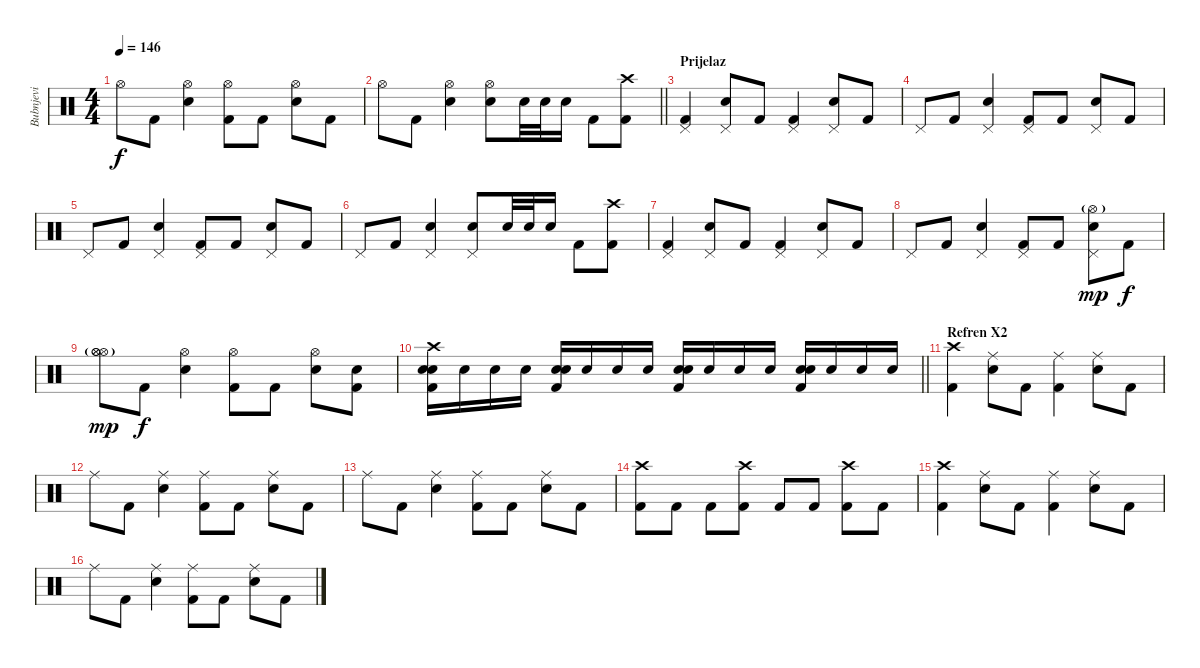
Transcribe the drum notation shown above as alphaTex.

\track ("Bubnjevi" "Bubnjevi") {instrument percussion}
\staff {score}
\articulation defaults
\ts (4 4)
\tempo 146
\clef neutral
\ks c "Hi-Hat (open)".8{dy f} "Kick (hit) 2".8
("Hi-Hat (open)" "Electric Snare (hit)").4 ("Hi-Hat (open)" "Kick (hit) 2").8 "Kick (hit) 2".8 ("Hi-Hat (open)" "Electric Snare (hit)").8 "Kick (hit) 2".8 |
\barLineRight lightlight "Hi-Hat (open)".8 "Kick (hit) 2".8
("Hi-Hat (open)" "Electric Snare (hit)").4 ("Hi-Hat (open)" "Snare (hit) 2").8 "Snare (hit) 2".32 "Snare (hit) 2".32 "Snare (hit) 2".16 "Kick (hit) 2".8 ("Crash high (hit)" "Kick (hit) 2").8 |
\section ("" "Prijelaz")
("Pedal Hi-Hat (hit)" "Kick (hit) 2").4 ("Pedal Hi-Hat (hit)" "Electric Snare (hit)").8 "Kick (hit) 2".8 ("Pedal Hi-Hat (hit)" "Kick (hit) 2").4 ("Pedal Hi-Hat (hit)" "Electric Snare (hit)").8 "Kick (hit) 2".8 |
"Pedal Hi-Hat (hit)".8 "Kick (hit) 2".8 ("Pedal Hi-Hat (hit)" "Electric Snare (hit)").4 ("Pedal Hi-Hat (hit)" "Kick (hit) 2").8 "Kick (hit) 2".8 ("Pedal Hi-Hat (hit)" "Electric Snare (hit)").8 "Kick (hit) 2".8 |
"Pedal Hi-Hat (hit)".8 "Kick (hit) 2".8 ("Pedal Hi-Hat (hit)" "Electric Snare (hit)").4 ("Pedal Hi-Hat (hit)" "Kick (hit) 2").8 "Kick (hit) 2".8 ("Pedal Hi-Hat (hit)" "Electric Snare (hit)").8 "Kick (hit) 2".8 |
"Pedal Hi-Hat (hit)".8 "Kick (hit) 2".8 ("Pedal Hi-Hat (hit)" "Electric Snare (hit)").4 ("Pedal Hi-Hat (hit)" "Snare (hit) 2").8 "Snare (hit) 2".32 "Snare (hit) 2".32 "Snare (hit) 2".16 "Kick (hit) 2".8 ("Crash high (hit)" "Kick (hit) 2").8 |
("Pedal Hi-Hat (hit)" "Kick (hit) 2").4 ("Pedal Hi-Hat (hit)" "Electric Snare (hit)").8 "Kick (hit) 2".8 ("Pedal Hi-Hat (hit)" "Kick (hit) 2").4 ("Pedal Hi-Hat (hit)" "Electric Snare (hit)").8 "Kick (hit) 2".8 |
"Pedal Hi-Hat (hit)".8 "Kick (hit) 2".8 ("Pedal Hi-Hat (hit)" "Electric Snare (hit)").4 ("Pedal Hi-Hat (hit)" "Kick (hit) 2").8 "Kick (hit) 2".8 ("Hi-Hat (open)"{g} "Pedal Hi-Hat (hit)" "Electric Snare (hit)").8{dy mp} "Kick (hit) 2".8{dy f} |
("Hi-Hat (open)"{g} "Hi-Hat (open)"{g} "Hi-Hat (open)"{g}).8{dy mp} "Kick (hit) 2".8{dy f} ("Hi-Hat (open)" "Electric Snare (hit)").4 ("Hi-Hat (open)" "Kick (hit) 2").8 "Kick (hit) 2".8 ("Hi-Hat (open)" "Electric Snare (hit)").8 ("Electric Snare (hit)" "Kick (hit) 2").8 |
\barLineRight lightlight
("Crash high (hit)" "Snare (hit) 2" "Snare (hit) 2" "Kick (hit) 2").16 "Snare (hit) 2".16 "Snare (hit) 2".16 "Snare (hit) 2".16 ("Snare (hit) 2" "Snare (hit) 2" "Kick (hit) 2").16 "Snare (hit) 2".16 "Snare (hit) 2".16 "Snare (hit) 2".16 ("Snare (hit) 2" "Snare (hit) 2" "Kick (hit) 2").16 "Snare (hit) 2".16 "Snare (hit) 2".16 "Snare (hit) 2".16 ("Snare (hit) 2" "Snare (hit) 2" "Kick (hit) 2").16 "Snare (hit) 2".16 "Snare (hit) 2".16 "Snare (hit) 2".16 |
\section ("" "Refren X2")
("Crash high (hit)" "Kick (hit) 2").4 ("Ride (middle)" "Electric Snare (hit)").8 "Kick (hit) 2".8 ("Ride (middle)" "Kick (hit) 2").4 ("Ride (middle)" "Electric Snare (hit)").8 "Kick (hit) 2".8 |
"Ride (middle)".8 "Kick (hit) 2".8 ("Ride (middle)" "Electric Snare (hit)").4 ("Ride (middle)" "Kick (hit) 2").8 "Kick (hit) 2".8 ("Ride (middle)" "Electric Snare (hit)").8 "Kick (hit) 2".8 |
"Ride (middle)".8 "Kick (hit) 2".8 ("Ride (middle)" "Electric Snare (hit)").4 ("Ride (middle)" "Kick (hit) 2").8 "Kick (hit) 2".8 ("Ride (middle)" "Electric Snare (hit)").8 "Kick (hit) 2".8 |
("Crash high (hit)" "Kick (hit) 2").8 "Kick (hit) 2".8 "Kick (hit) 2".8 ("Crash high (hit)" "Kick (hit) 2").8 "Kick (hit) 2".8 "Kick (hit) 2".8 ("Crash high (hit)" "Kick (hit) 2").8 "Kick (hit) 2".8 |
("Crash high (hit)" "Kick (hit) 2").4 ("Ride (middle)" "Electric Snare (hit)").8 "Kick (hit) 2".8 ("Ride (middle)" "Kick (hit) 2").4 ("Ride (middle)" "Electric Snare (hit)").8 "Kick (hit) 2".8 |
"Ride (middle)".8 "Kick (hit) 2".8 ("Ride (middle)" "Electric Snare (hit)").4 ("Ride (middle)" "Kick (hit) 2").8 "Kick (hit) 2".8 ("Ride (middle)" "Electric Snare (hit)").8 "Kick (hit) 2".8
